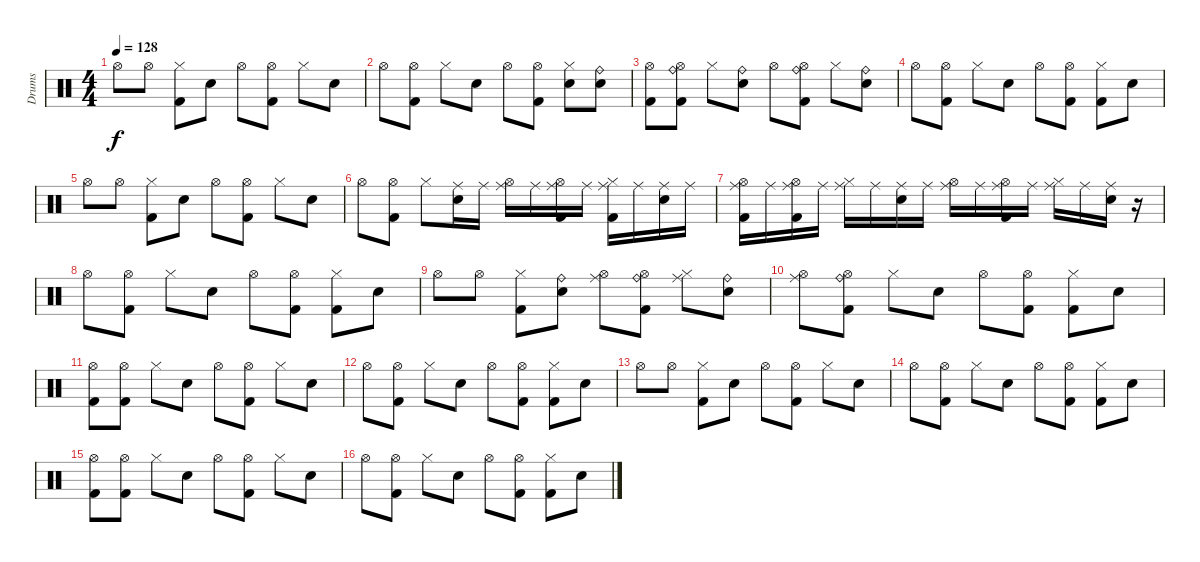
\track ("Drums" "Drums") {instrument percussion}
\staff {score}
\articulation defaults
\ts (4 4)
\tempo 128
\clef neutral
\ks c "Hi-Hat (open)".8{dy f} "Hi-Hat (open)".8
("Hi-Hat (closed)" "Kick (hit) 2").8 "Snare (hit) 2".8 "Hi-Hat (open)".8 ("Hi-Hat (open)" "Kick (hit) 2").8 "Hi-Hat (closed)".8 "Snare (hit) 2".8 |
"Hi-Hat (open)".8 ("Hi-Hat (open)" "Kick (hit) 2").8 "Hi-Hat (closed)".8 "Snare (hit) 2".8 "Hi-Hat (open)".8 ("Hi-Hat (open)" "Kick (hit) 2").8 ("Hi-Hat (closed)" "Snare (hit) 2").8 ("Ride (bell)" "Snare (hit) 2").8 |
("Hi-Hat (open)" "Kick (hit) 2").8 ("Hi-Hat (open)" "Ride (bell)" "Kick (hit) 2").8 "Hi-Hat (closed)".8 ("Ride (bell)" "Snare (hit) 2").8 "Hi-Hat (open)".8 ("Hi-Hat (open)" "Ride (bell)" "Kick (hit) 2").8 "Hi-Hat (closed)".8 ("Ride (bell)" "Snare (hit) 2").8 |
"Hi-Hat (open)".8 ("Hi-Hat (open)" "Kick (hit) 2").8 "Hi-Hat (closed)".8 "Snare (hit) 2".8 "Hi-Hat (open)".8 ("Hi-Hat (open)" "Kick (hit) 2").8 ("Hi-Hat (closed)" "Kick (hit) 2").8 "Snare (hit) 2".8 |
"Hi-Hat (open)".8 "Hi-Hat (open)".8 ("Hi-Hat (closed)" "Kick (hit) 2").8 "Snare (hit) 2".8 "Hi-Hat (open)".8 ("Hi-Hat (open)" "Kick (hit) 2").8 "Hi-Hat (closed)".8 "Snare (hit) 2".8 |
"Hi-Hat (open)".8 ("Hi-Hat (open)" "Kick (hit) 2").8 "Hi-Hat (closed)".8 ("Ride (middle)" "Snare (hit) 2").16 "Ride (middle)".16 ("Hi-Hat (open)" "Ride (middle)").16 "Ride (middle)".16 ("Hi-Hat (open)" "Ride (middle)" "Kick (hit) 2").16 "Ride (middle)".16 ("Hi-Hat (closed)" "Ride (middle)" "Kick (hit) 2").16 "Ride (middle)".16 ("Ride (middle)" "Snare (hit) 2").16 "Ride (middle)".16 |
("Hi-Hat (open)" "Ride (middle)" "Kick (hit) 2").16 "Ride (middle)".16 ("Hi-Hat (open)" "Ride (middle)" "Kick (hit) 2").16 "Ride (middle)".16 ("Hi-Hat (closed)" "Ride (middle)").16 "Ride (middle)".16 ("Ride (middle)" "Snare (hit) 2").16 "Ride (middle)".16 ("Hi-Hat (open)" "Ride (middle)").16 "Ride (middle)".16 ("Hi-Hat (open)" "Ride (middle)" "Kick (hit) 2").16 "Ride (middle)".16 ("Hi-Hat (closed)" "Ride (middle)").16 "Ride (middle)".16 ("Ride (middle)" "Snare (hit) 2").16 r.16 |
"Hi-Hat (open)".8 ("Hi-Hat (open)" "Kick (hit) 2").8 "Hi-Hat (closed)".8 "Snare (hit) 2".8 "Hi-Hat (open)".8 ("Hi-Hat (open)" "Kick (hit) 2").8 ("Hi-Hat (closed)" "Kick (hit) 2").8 "Snare (hit) 2".8 |
"Hi-Hat (open)".8 "Hi-Hat (open)".8 ("Hi-Hat (closed)" "Kick (hit) 2").8 ("Ride (bell)" "Snare (hit) 2").8 ("Hi-Hat (open)" "Ride (middle)").8 ("Hi-Hat (open)" "Ride (bell)" "Kick (hit) 2").8 ("Hi-Hat (closed)" "Ride (middle)").8 ("Ride (bell)" "Snare (hit) 2").8 |
("Hi-Hat (open)" "Ride (middle)").8 ("Hi-Hat (open)" "Ride (bell)" "Kick (hit) 2").8 "Hi-Hat (closed)".8 "Snare (hit) 2".8 "Hi-Hat (open)".8 ("Hi-Hat (open)" "Kick (hit) 2").8 ("Hi-Hat (closed)" "Kick (hit) 2").8 "Snare (hit) 2".8 |
("Hi-Hat (open)" "Kick (hit) 2").8 ("Hi-Hat (open)" "Kick (hit) 2").8 "Hi-Hat (closed)".8 "Snare (hit) 2".8 "Hi-Hat (open)".8 ("Hi-Hat (open)" "Kick (hit) 2").8 "Hi-Hat (closed)".8 "Snare (hit) 2".8 |
"Hi-Hat (open)".8 ("Hi-Hat (open)" "Kick (hit) 2").8 "Hi-Hat (closed)".8 "Snare (hit) 2".8 "Hi-Hat (open)".8 ("Hi-Hat (open)" "Kick (hit) 2").8 ("Hi-Hat (closed)" "Kick (hit) 2").8 "Snare (hit) 2".8 |
"Hi-Hat (open)".8 "Hi-Hat (open)".8 ("Hi-Hat (closed)" "Kick (hit) 2").8 "Snare (hit) 2".8 "Hi-Hat (open)".8 ("Hi-Hat (open)" "Kick (hit) 2").8 "Hi-Hat (closed)".8 "Snare (hit) 2".8 |
"Hi-Hat (open)".8 ("Hi-Hat (open)" "Kick (hit) 2").8 "Hi-Hat (closed)".8 "Snare (hit) 2".8 "Hi-Hat (open)".8 ("Hi-Hat (open)" "Kick (hit) 2").8 ("Hi-Hat (closed)" "Kick (hit) 2").8 "Snare (hit) 2".8 |
("Hi-Hat (open)" "Kick (hit) 2").8 ("Hi-Hat (open)" "Kick (hit) 2").8 "Hi-Hat (closed)".8 "Snare (hit) 2".8 "Hi-Hat (open)".8 ("Hi-Hat (open)" "Kick (hit) 2").8 "Hi-Hat (closed)".8 "Snare (hit) 2".8 |
"Hi-Hat (open)".8 ("Hi-Hat (open)" "Kick (hit) 2").8 "Hi-Hat (closed)".8 "Snare (hit) 2".8 "Hi-Hat (open)".8 ("Hi-Hat (open)" "Kick (hit) 2").8 ("Hi-Hat (closed)" "Kick (hit) 2").8 "Snare (hit) 2".8
